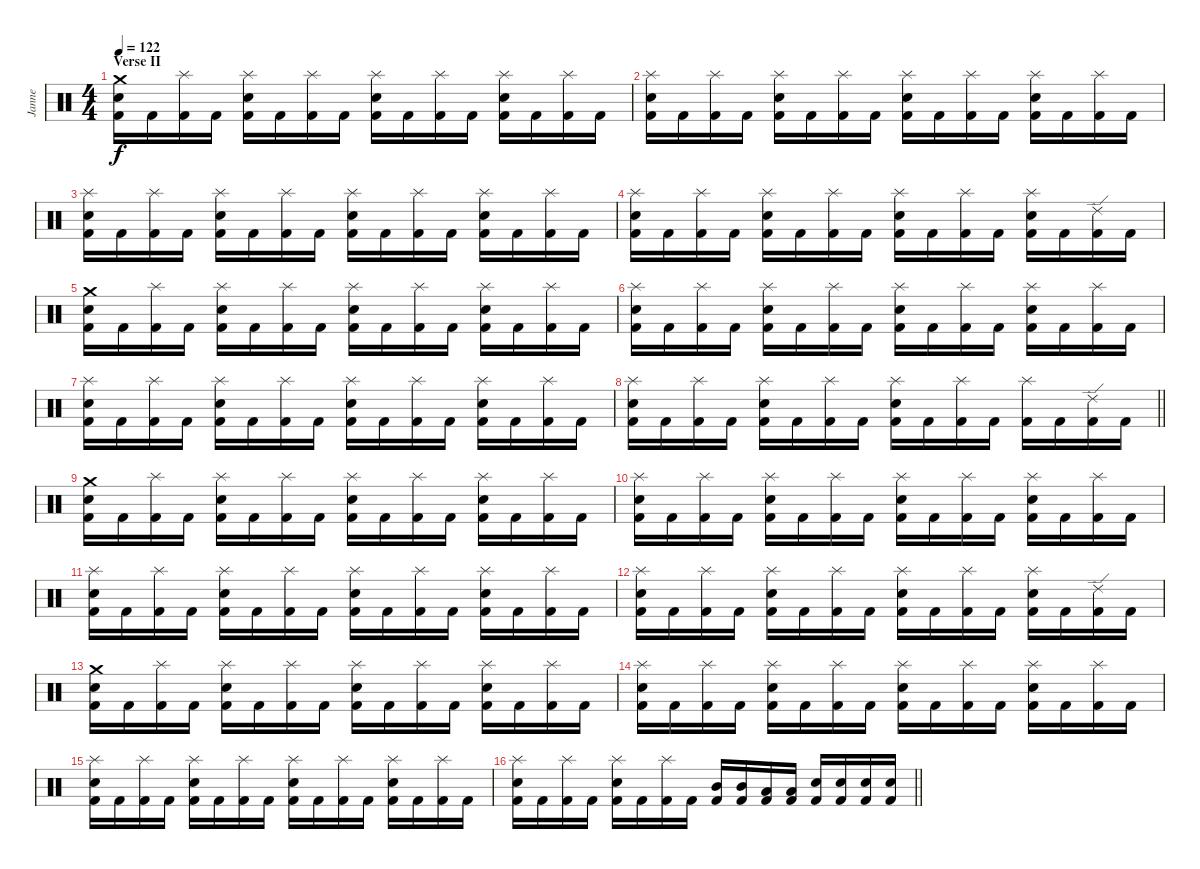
\track ("Janne" "Janne") {instrument percussion}
\staff {score}
\articulation defaults
\ts (4 4)
\section ("" "Verse II")
\tempo 122
\clef neutral
\ks c
("Kick (hit) 2" "Snare (hit) 2" "Crash medium (hit)").16{dy f} "Kick (hit) 2".16 ("Kick (hit) 2" "Splash (hit)").16 "Kick (hit) 2".16 ("Kick (hit) 2" "Snare (hit) 2" "Splash (hit)").16 "Kick (hit) 2".16 ("Kick (hit) 2" "Splash (hit)").16 "Kick (hit) 2".16 ("Kick (hit) 2" "Snare (hit) 2" "Splash (hit)").16 "Kick (hit) 2".16 ("Kick (hit) 2" "Splash (hit)").16 "Kick (hit) 2".16 ("Kick (hit) 2" "Snare (hit) 2" "Splash (hit)").16 "Kick (hit) 2".16 ("Kick (hit) 2" "Splash (hit)").16 "Kick (hit) 2".16 |
("Kick (hit) 2" "Snare (hit) 2" "Splash (hit)").16 "Kick (hit) 2".16 ("Kick (hit) 2" "Splash (hit)").16 "Kick (hit) 2".16 ("Kick (hit) 2" "Snare (hit) 2" "Splash (hit)").16 "Kick (hit) 2".16 ("Kick (hit) 2" "Splash (hit)").16 "Kick (hit) 2".16 ("Kick (hit) 2" "Snare (hit) 2" "Splash (hit)").16 "Kick (hit) 2".16 ("Kick (hit) 2" "Splash (hit)").16 "Kick (hit) 2".16 ("Kick (hit) 2" "Snare (hit) 2" "Splash (hit)").16 "Kick (hit) 2".16 ("Kick (hit) 2" "Splash (hit)").16 "Kick (hit) 2".16 |
("Kick (hit) 2" "Snare (hit) 2" "Splash (hit)").16 "Kick (hit) 2".16 ("Kick (hit) 2" "Splash (hit)").16 "Kick (hit) 2".16 ("Kick (hit) 2" "Snare (hit) 2" "Splash (hit)").16 "Kick (hit) 2".16 ("Kick (hit) 2" "Splash (hit)").16 "Kick (hit) 2".16 ("Kick (hit) 2" "Snare (hit) 2" "Splash (hit)").16 "Kick (hit) 2".16 ("Kick (hit) 2" "Splash (hit)").16 "Kick (hit) 2".16 ("Kick (hit) 2" "Snare (hit) 2" "Splash (hit)").16 "Kick (hit) 2".16 ("Kick (hit) 2" "Splash (hit)").16 "Kick (hit) 2".16 |
("Kick (hit) 2" "Snare (hit) 2" "Splash (hit)").16 "Kick (hit) 2".16 ("Kick (hit) 2" "Splash (hit)").16 "Kick (hit) 2".16 ("Kick (hit) 2" "Snare (hit) 2" "Splash (hit)").16 "Kick (hit) 2".16 ("Kick (hit) 2" "Splash (hit)").16 "Kick (hit) 2".16 ("Kick (hit) 2" "Snare (hit) 2" "Splash (hit)").16 "Kick (hit) 2".16 ("Kick (hit) 2" "Splash (hit)").16 "Kick (hit) 2".16 ("Kick (hit) 2" "Snare (hit) 2" "Splash (hit)").16 "Kick (hit) 2".16 ("Kick (hit) 2" "Ride (edge) 2").16 "Kick (hit) 2".16 |
("Kick (hit) 2" "Snare (hit) 2" "Crash medium (hit)").16 "Kick (hit) 2".16 ("Kick (hit) 2" "Splash (hit)").16 "Kick (hit) 2".16 ("Kick (hit) 2" "Snare (hit) 2" "Splash (hit)").16 "Kick (hit) 2".16 ("Kick (hit) 2" "Splash (hit)").16 "Kick (hit) 2".16 ("Kick (hit) 2" "Snare (hit) 2" "Splash (hit)").16 "Kick (hit) 2".16 ("Kick (hit) 2" "Splash (hit)").16 "Kick (hit) 2".16 ("Kick (hit) 2" "Snare (hit) 2" "Splash (hit)").16 "Kick (hit) 2".16 ("Kick (hit) 2" "Splash (hit)").16 "Kick (hit) 2".16 |
("Kick (hit) 2" "Snare (hit) 2" "Splash (hit)").16 "Kick (hit) 2".16 ("Kick (hit) 2" "Splash (hit)").16 "Kick (hit) 2".16 ("Kick (hit) 2" "Snare (hit) 2" "Splash (hit)").16 "Kick (hit) 2".16 ("Kick (hit) 2" "Splash (hit)").16 "Kick (hit) 2".16 ("Kick (hit) 2" "Snare (hit) 2" "Splash (hit)").16 "Kick (hit) 2".16 ("Kick (hit) 2" "Splash (hit)").16 "Kick (hit) 2".16 ("Kick (hit) 2" "Snare (hit) 2" "Splash (hit)").16 "Kick (hit) 2".16 ("Kick (hit) 2" "Splash (hit)").16 "Kick (hit) 2".16 |
("Kick (hit) 2" "Snare (hit) 2" "Splash (hit)").16 "Kick (hit) 2".16 ("Kick (hit) 2" "Splash (hit)").16 "Kick (hit) 2".16 ("Kick (hit) 2" "Snare (hit) 2" "Splash (hit)").16 "Kick (hit) 2".16 ("Kick (hit) 2" "Splash (hit)").16 "Kick (hit) 2".16 ("Kick (hit) 2" "Snare (hit) 2" "Splash (hit)").16 "Kick (hit) 2".16 ("Kick (hit) 2" "Splash (hit)").16 "Kick (hit) 2".16 ("Kick (hit) 2" "Snare (hit) 2" "Splash (hit)").16 "Kick (hit) 2".16 ("Kick (hit) 2" "Splash (hit)").16 "Kick (hit) 2".16 |
\barLineRight lightlight
("Kick (hit) 2" "Snare (hit) 2" "Splash (hit)").16 "Kick (hit) 2".16 ("Kick (hit) 2" "Splash (hit)").16 "Kick (hit) 2".16 ("Kick (hit) 2" "Snare (hit) 2" "Splash (hit)").16 "Kick (hit) 2".16 ("Kick (hit) 2" "Splash (hit)").16 "Kick (hit) 2".16 ("Kick (hit) 2" "Snare (hit) 2" "Splash (hit)").16 "Kick (hit) 2".16 ("Kick (hit) 2" "Splash (hit)").16 "Kick (hit) 2".16 ("Kick (hit) 2" "Splash (hit)").16 "Kick (hit) 2".16 ("Kick (hit) 2" "Ride (edge) 2").16 "Kick (hit) 2".16 |
\section ("" "")
("Kick (hit) 2" "Snare (hit) 2" "Crash medium (hit)").16 "Kick (hit) 2".16 ("Kick (hit) 2" "Splash (hit)").16 "Kick (hit) 2".16 ("Kick (hit) 2" "Snare (hit) 2" "Splash (hit)").16 "Kick (hit) 2".16 ("Kick (hit) 2" "Splash (hit)").16 "Kick (hit) 2".16 ("Kick (hit) 2" "Snare (hit) 2" "Splash (hit)").16 "Kick (hit) 2".16 ("Kick (hit) 2" "Splash (hit)").16 "Kick (hit) 2".16 ("Kick (hit) 2" "Snare (hit) 2" "Splash (hit)").16 "Kick (hit) 2".16 ("Kick (hit) 2" "Splash (hit)").16 "Kick (hit) 2".16 |
("Kick (hit) 2" "Snare (hit) 2" "Splash (hit)").16 "Kick (hit) 2".16 ("Kick (hit) 2" "Splash (hit)").16 "Kick (hit) 2".16 ("Kick (hit) 2" "Snare (hit) 2" "Splash (hit)").16 "Kick (hit) 2".16 ("Kick (hit) 2" "Splash (hit)").16 "Kick (hit) 2".16 ("Kick (hit) 2" "Snare (hit) 2" "Splash (hit)").16 "Kick (hit) 2".16 ("Kick (hit) 2" "Splash (hit)").16 "Kick (hit) 2".16 ("Kick (hit) 2" "Snare (hit) 2" "Splash (hit)").16 "Kick (hit) 2".16 ("Kick (hit) 2" "Splash (hit)").16 "Kick (hit) 2".16 |
("Kick (hit) 2" "Snare (hit) 2" "Splash (hit)").16 "Kick (hit) 2".16 ("Kick (hit) 2" "Splash (hit)").16 "Kick (hit) 2".16 ("Kick (hit) 2" "Snare (hit) 2" "Splash (hit)").16 "Kick (hit) 2".16 ("Kick (hit) 2" "Splash (hit)").16 "Kick (hit) 2".16 ("Kick (hit) 2" "Snare (hit) 2" "Splash (hit)").16 "Kick (hit) 2".16 ("Kick (hit) 2" "Splash (hit)").16 "Kick (hit) 2".16 ("Kick (hit) 2" "Snare (hit) 2" "Splash (hit)").16 "Kick (hit) 2".16 ("Kick (hit) 2" "Splash (hit)").16 "Kick (hit) 2".16 |
("Kick (hit) 2" "Snare (hit) 2" "Splash (hit)").16 "Kick (hit) 2".16 ("Kick (hit) 2" "Splash (hit)").16 "Kick (hit) 2".16 ("Kick (hit) 2" "Snare (hit) 2" "Splash (hit)").16 "Kick (hit) 2".16 ("Kick (hit) 2" "Splash (hit)").16 "Kick (hit) 2".16 ("Kick (hit) 2" "Snare (hit) 2" "Splash (hit)").16 "Kick (hit) 2".16 ("Kick (hit) 2" "Splash (hit)").16 "Kick (hit) 2".16 ("Kick (hit) 2" "Snare (hit) 2" "Splash (hit)").16 "Kick (hit) 2".16 ("Kick (hit) 2" "Ride (edge) 2").16 "Kick (hit) 2".16 |
("Kick (hit) 2" "Snare (hit) 2" "Crash medium (hit)").16 "Kick (hit) 2".16 ("Kick (hit) 2" "Splash (hit)").16 "Kick (hit) 2".16 ("Kick (hit) 2" "Snare (hit) 2" "Splash (hit)").16 "Kick (hit) 2".16 ("Kick (hit) 2" "Splash (hit)").16 "Kick (hit) 2".16 ("Kick (hit) 2" "Snare (hit) 2" "Splash (hit)").16 "Kick (hit) 2".16 ("Kick (hit) 2" "Splash (hit)").16 "Kick (hit) 2".16 ("Kick (hit) 2" "Snare (hit) 2" "Splash (hit)").16 "Kick (hit) 2".16 ("Kick (hit) 2" "Splash (hit)").16 "Kick (hit) 2".16 |
("Kick (hit) 2" "Snare (hit) 2" "Splash (hit)").16 "Kick (hit) 2".16 ("Kick (hit) 2" "Splash (hit)").16 "Kick (hit) 2".16 ("Kick (hit) 2" "Snare (hit) 2" "Splash (hit)").16 "Kick (hit) 2".16 ("Kick (hit) 2" "Splash (hit)").16 "Kick (hit) 2".16 ("Kick (hit) 2" "Snare (hit) 2" "Splash (hit)").16 "Kick (hit) 2".16 ("Kick (hit) 2" "Splash (hit)").16 "Kick (hit) 2".16 ("Kick (hit) 2" "Snare (hit) 2" "Splash (hit)").16 "Kick (hit) 2".16 ("Kick (hit) 2" "Splash (hit)").16 "Kick (hit) 2".16 |
("Kick (hit) 2" "Snare (hit) 2" "Splash (hit)").16 "Kick (hit) 2".16 ("Kick (hit) 2" "Splash (hit)").16 "Kick (hit) 2".16 ("Kick (hit) 2" "Snare (hit) 2" "Splash (hit)").16 "Kick (hit) 2".16 ("Kick (hit) 2" "Splash (hit)").16 "Kick (hit) 2".16 ("Kick (hit) 2" "Snare (hit) 2" "Splash (hit)").16 "Kick (hit) 2".16 ("Kick (hit) 2" "Splash (hit)").16 "Kick (hit) 2".16 ("Kick (hit) 2" "Snare (hit) 2" "Splash (hit)").16 "Kick (hit) 2".16 ("Kick (hit) 2" "Splash (hit)").16 "Kick (hit) 2".16 |
\barLineRight lightlight
("Kick (hit) 2" "Snare (hit) 2" "Splash (hit)").16 "Kick (hit) 2".16 ("Kick (hit) 2" "Splash (hit)").16 "Kick (hit) 2".16 ("Kick (hit) 2" "Snare (hit) 2" "Splash (hit)").16 "Kick (hit) 2".16 ("Kick (hit) 2" "Splash (hit)").16 "Kick (hit) 2".16 ("Kick (hit) 2" "Mid Tom (hit)").16 ("Kick (hit) 2" "Mid Tom (hit)").16 ("Kick (hit) 2" "Low Tom (hit)").16 ("Kick (hit) 2" "Low Tom (hit)").16 ("Kick (hit) 2" "Snare (hit) 2").16 ("Kick (hit) 2" "Snare (hit) 2").16 ("Kick (hit) 2" "Snare (hit) 2").16 ("Kick (hit) 2" "Snare (hit) 2").16
